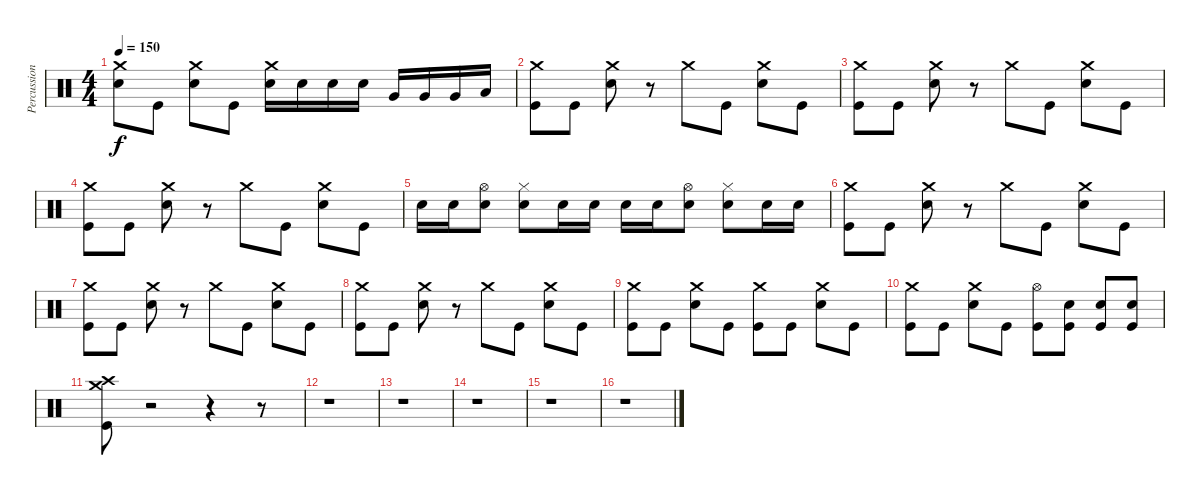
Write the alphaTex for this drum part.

\track ("Percussion" "Percussion") {instrument percussion}
\staff {score}
\articulation defaults
\ts (4 4)
\tempo 150
\clef neutral
\ks c
("Crash medium (hit)" "Snare (hit) 2").8{dy f} "Kick (hit)".8 ("Crash medium (hit)" "Snare (hit) 2").8 "Kick (hit)".8 ("Crash medium (hit)" "Snare (hit) 2").16 "Snare (hit) 2".16 "Snare (hit) 2".16 "Snare (hit) 2".16 "Very Low Tom (hit)".16 "Very Low Tom (hit)".16 "Very Low Tom (hit)".16 "Low Floor Tom (hit)".16 |
("Crash medium (hit)" "Kick (hit)").8 "Kick (hit)".8 ("Crash medium (hit)" "Snare (hit) 2").8 r.8 "Crash medium (hit)".8 "Kick (hit)".8 ("Crash medium (hit)" "Snare (hit) 2").8 "Kick (hit)".8 |
("Crash medium (hit)" "Kick (hit)").8 "Kick (hit)".8 ("Crash medium (hit)" "Snare (hit) 2").8 r.8 "Crash medium (hit)".8 "Kick (hit)".8 ("Crash medium (hit)" "Snare (hit) 2").8 "Kick (hit)".8 |
("Crash medium (hit)" "Kick (hit)").8 "Kick (hit)".8 ("Crash medium (hit)" "Snare (hit) 2").8 r.8 "Crash medium (hit)".8 "Kick (hit)".8 ("Crash medium (hit)" "Snare (hit) 2").8 "Kick (hit)".8 |
"Snare (hit) 2".16 "Snare (hit) 2".16 ("Hi-Hat (open)" "Snare (hit) 2").8 ("Hi-Hat (closed)" "Snare (hit) 2").8 "Snare (hit) 2".16 "Snare (hit) 2".16 "Snare (hit) 2".16 "Snare (hit) 2".16 ("Hi-Hat (open)" "Snare (hit) 2").8 ("Hi-Hat (closed)" "Snare (hit) 2").8 "Snare (hit) 2".16 "Snare (hit) 2".16 |
("Crash medium (hit)" "Kick (hit)").8 "Kick (hit)".8 ("Crash medium (hit)" "Snare (hit) 2").8 r.8 "Crash medium (hit)".8 "Kick (hit)".8 ("Crash medium (hit)" "Snare (hit) 2").8 "Kick (hit)".8 |
("Crash medium (hit)" "Kick (hit)").8 "Kick (hit)".8 ("Crash medium (hit)" "Snare (hit) 2").8 r.8 "Crash medium (hit)".8 "Kick (hit)".8 ("Crash medium (hit)" "Snare (hit) 2").8 "Kick (hit)".8 |
("Crash medium (hit)" "Kick (hit)").8 "Kick (hit)".8 ("Crash medium (hit)" "Snare (hit) 2").8 r.8 "Crash medium (hit)".8 "Kick (hit)".8 ("Crash medium (hit)" "Snare (hit) 2").8 "Kick (hit)".8 |
("Crash medium (hit)" "Kick (hit)").8 "Kick (hit)".8 ("Crash medium (hit)" "Snare (hit) 2").8 "Kick (hit)".8 ("Crash medium (hit)" "Kick (hit)").8 "Kick (hit)".8 ("Crash medium (hit)" "Snare (hit) 2").8 "Kick (hit)".8 |
("Crash medium (hit)" "Kick (hit)").8 "Kick (hit)".8 ("Crash medium (hit)" "Snare (hit) 2").8 "Kick (hit)".8 ("Hi-Hat (open)" "Kick (hit)").8 ("Snare (hit) 2" "Kick (hit)").8 ("Snare (hit) 2" "Kick (hit)").8 ("Snare (hit) 2" "Kick (hit)").8 |
("Crash high (hit)" "Crash medium (hit)" "Kick (hit)").8 r.2 r.4 r.8 |
r.1 |
r.1 |
r.1 |
r.1 |
r.1
